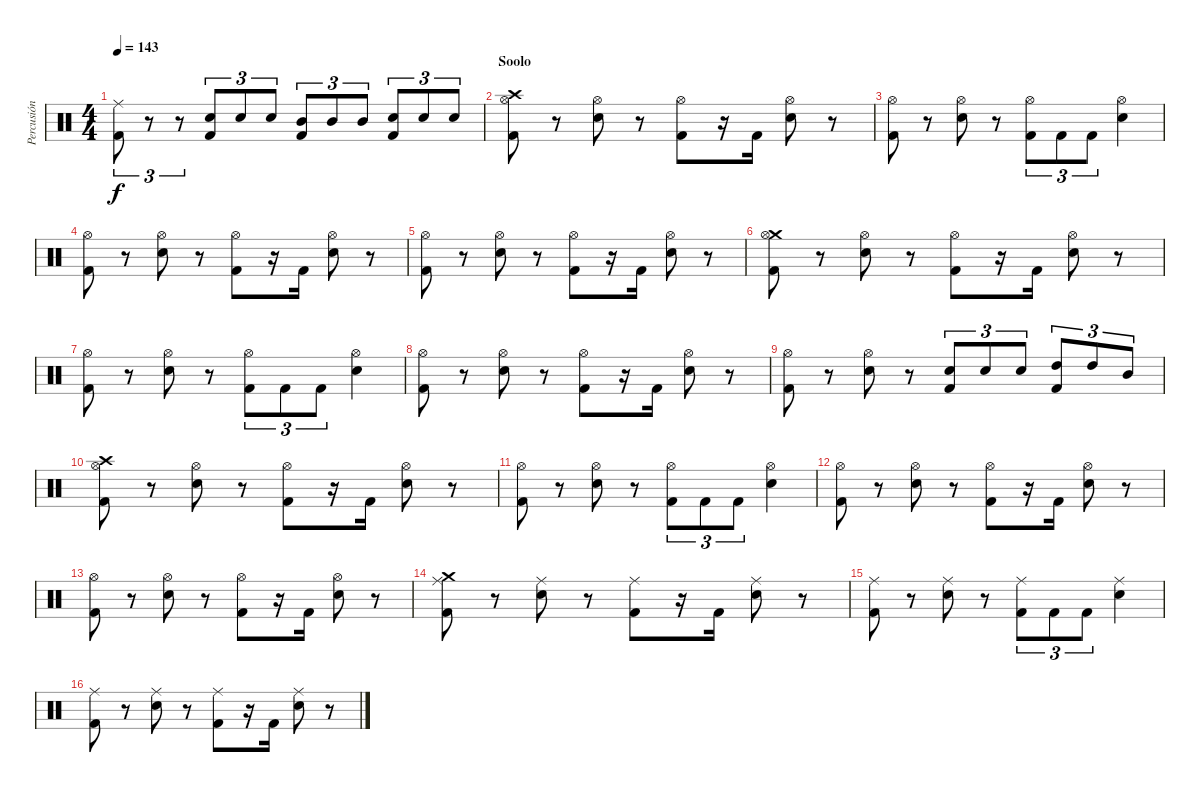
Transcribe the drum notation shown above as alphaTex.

\track ("Percusión" "Percusión") {instrument percussion}
\staff {score}
\articulation defaults
\ts (4 4)
\tempo 143
\clef neutral
\ks c
("Ride (middle)" "Kick (hit) 2").8{tu (3 2) dy f} r.8{tu (3 2)} r.8{tu (3 2)} ("Electric Snare (hit)" "Kick (hit) 2").8{tu (3 2)} "Electric Snare (hit)".8{tu (3 2)} "Electric Snare (hit)".8{tu (3 2)} ("Mid Tom (hit)" "Kick (hit) 2").8{tu (3 2)} "Mid Tom (hit)".8{tu (3 2)} "Mid Tom (hit)".8{tu (3 2)} ("Electric Snare (hit)" "Kick (hit) 2").8{tu (3 2)} "Electric Snare (hit)".8{tu (3 2)} "Electric Snare (hit)".8{tu (3 2)} |
\section ("" "Soolo")
("Crash high (hit)" "Hi-Hat (open)" "Kick (hit) 2").8 r.8 ("Hi-Hat (open)" "Electric Snare (hit)").8 r.8 ("Hi-Hat (open)" "Kick (hit) 2").8 r.16 "Kick (hit) 2".16 ("Electric Snare (hit)" "Hi-Hat (open)").8 r.8 |
("Hi-Hat (open)" "Kick (hit) 2").8 r.8 ("Hi-Hat (open)" "Electric Snare (hit)").8 r.8 ("Hi-Hat (open)" "Kick (hit) 2").8{tu (3 2)} "Kick (hit) 2".8{tu (3 2)} "Kick (hit) 2".8{tu (3 2)} ("Hi-Hat (open)" "Electric Snare (hit)").4 |
("Hi-Hat (open)" "Kick (hit) 2").8 r.8 ("Hi-Hat (open)" "Electric Snare (hit)").8 r.8 ("Hi-Hat (open)" "Kick (hit) 2").8 r.16 "Kick (hit) 2".16 ("Electric Snare (hit)" "Hi-Hat (open)").8 r.8 |
("Hi-Hat (open)" "Kick (hit) 2").8 r.8 ("Hi-Hat (open)" "Electric Snare (hit)").8 r.8 ("Hi-Hat (open)" "Kick (hit) 2").8 r.16 "Kick (hit) 2".16 ("Electric Snare (hit)" "Hi-Hat (open)").8 r.8 |
("Crash medium (hit)" "Hi-Hat (open)" "Kick (hit) 2").8 r.8 ("Hi-Hat (open)" "Electric Snare (hit)").8 r.8 ("Hi-Hat (open)" "Kick (hit) 2").8 r.16 "Kick (hit) 2".16 ("Electric Snare (hit)" "Hi-Hat (open)").8 r.8 |
("Hi-Hat (open)" "Kick (hit) 2").8 r.8 ("Hi-Hat (open)" "Electric Snare (hit)").8 r.8 ("Hi-Hat (open)" "Kick (hit) 2").8{tu (3 2)} "Kick (hit) 2".8{tu (3 2)} "Kick (hit) 2".8{tu (3 2)} ("Hi-Hat (open)" "Electric Snare (hit)").4 |
("Hi-Hat (open)" "Kick (hit) 2").8 r.8 ("Hi-Hat (open)" "Electric Snare (hit)").8 r.8 ("Hi-Hat (open)" "Kick (hit) 2").8 r.16 "Kick (hit) 2".16 ("Electric Snare (hit)" "Hi-Hat (open)").8 r.8 |
("Hi-Hat (open)" "Kick (hit) 2").8 r.8 ("Hi-Hat (open)" "Electric Snare (hit)").8 r.8 ("Electric Snare (hit)" "Kick (hit) 2").8{tu (3 2)} "Electric Snare (hit)".8{tu (3 2)} "Electric Snare (hit)".8{tu (3 2)} ("High Tom (hit)" "Kick (hit) 2").8{tu (3 2)} "High Tom (hit)".8{tu (3 2)} "Mid Tom (hit)".8{tu (3 2)} |
("Crash high (hit)" "Hi-Hat (open)" "Kick (hit) 2").8 r.8 ("Hi-Hat (open)" "Electric Snare (hit)").8 r.8 ("Hi-Hat (open)" "Kick (hit) 2").8 r.16 "Kick (hit) 2".16 ("Electric Snare (hit)" "Hi-Hat (open)").8 r.8 |
("Hi-Hat (open)" "Kick (hit) 2").8 r.8 ("Hi-Hat (open)" "Electric Snare (hit)").8 r.8 ("Hi-Hat (open)" "Kick (hit) 2").8{tu (3 2)} "Kick (hit) 2".8{tu (3 2)} "Kick (hit) 2".8{tu (3 2)} ("Hi-Hat (open)" "Electric Snare (hit)").4 |
("Hi-Hat (open)" "Kick (hit) 2").8 r.8 ("Hi-Hat (open)" "Electric Snare (hit)").8 r.8 ("Hi-Hat (open)" "Kick (hit) 2").8 r.16 "Kick (hit) 2".16 ("Electric Snare (hit)" "Hi-Hat (open)").8 r.8 |
("Hi-Hat (open)" "Kick (hit) 2").8 r.8 ("Hi-Hat (open)" "Electric Snare (hit)").8 r.8 ("Hi-Hat (open)" "Kick (hit) 2").8 r.16 "Kick (hit) 2".16 ("Electric Snare (hit)" "Hi-Hat (open)").8 r.8 |
("Crash medium (hit)" "Ride (middle)" "Kick (hit) 2").8 r.8 ("Ride (middle)" "Electric Snare (hit)").8 r.8 ("Ride (middle)" "Kick (hit) 2").8 r.16 "Kick (hit) 2".16 ("Electric Snare (hit)" "Ride (middle)").8 r.8 |
("Ride (middle)" "Kick (hit) 2").8 r.8 ("Ride (middle)" "Electric Snare (hit)").8 r.8 ("Ride (middle)" "Kick (hit) 2").8{tu (3 2)} "Kick (hit) 2".8{tu (3 2)} "Kick (hit) 2".8{tu (3 2)} ("Ride (middle)" "Electric Snare (hit)").4 |
("Ride (middle)" "Kick (hit) 2").8 r.8 ("Ride (middle)" "Electric Snare (hit)").8 r.8 ("Ride (middle)" "Kick (hit) 2").8 r.16 "Kick (hit) 2".16 ("Electric Snare (hit)" "Ride (middle)").8 r.8
